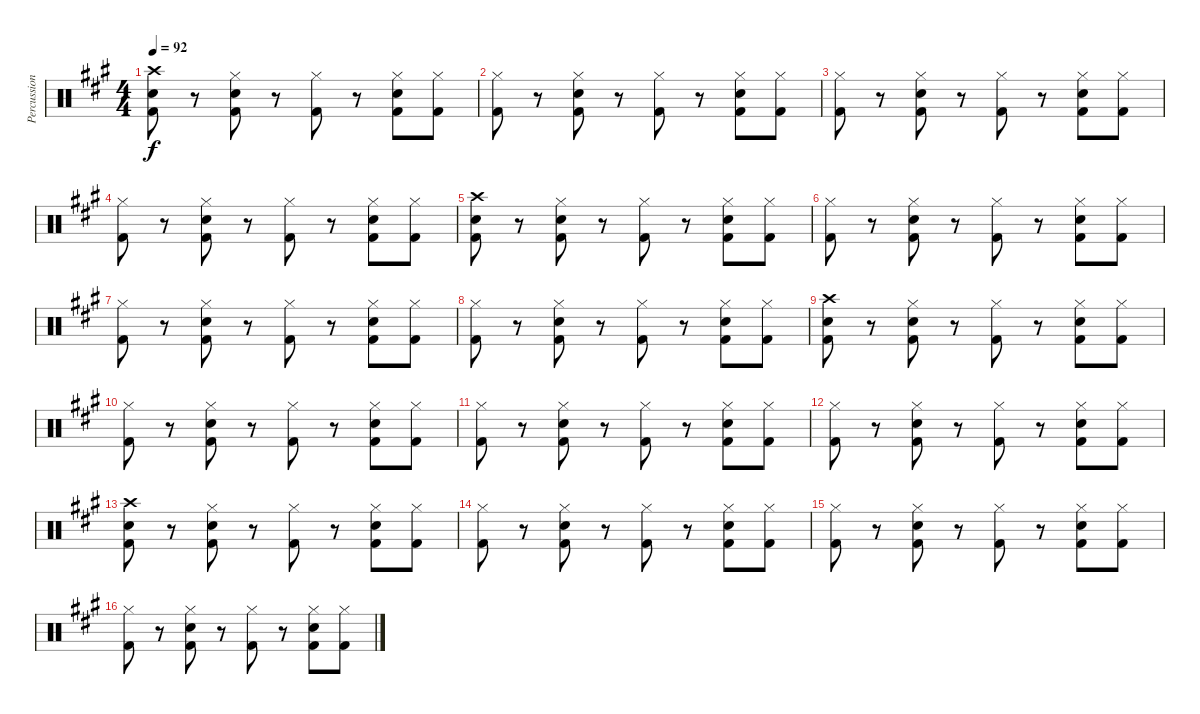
\track ("Percussion" "Percussion") {instrument percussion}
\staff {score}
\articulation defaults
\ts (4 4)
\tempo 92
\clef neutral
\ks a
("Kick (hit) 2" "Snare (hit) 2" "Crash high (hit)").8{dy f} r.8 ("Kick (hit) 2" "Snare (hit) 2" "Hi-Hat (closed)").8 r.8 ("Kick (hit) 2" "Hi-Hat (closed)").8 r.8 ("Kick (hit) 2" "Snare (hit) 2" "Hi-Hat (closed)").8 ("Kick (hit) 2" "Hi-Hat (closed)").8 |
("Kick (hit) 2" "Hi-Hat (closed)").8 r.8 ("Kick (hit) 2" "Snare (hit) 2" "Hi-Hat (closed)").8 r.8 ("Kick (hit) 2" "Hi-Hat (closed)").8 r.8 ("Kick (hit) 2" "Snare (hit) 2" "Hi-Hat (closed)").8 ("Kick (hit) 2" "Hi-Hat (closed)").8 |
("Kick (hit) 2" "Hi-Hat (closed)").8 r.8 ("Kick (hit) 2" "Snare (hit) 2" "Hi-Hat (closed)").8 r.8 ("Kick (hit) 2" "Hi-Hat (closed)").8 r.8 ("Kick (hit) 2" "Snare (hit) 2" "Hi-Hat (closed)").8 ("Kick (hit) 2" "Hi-Hat (closed)").8 |
("Kick (hit) 2" "Hi-Hat (closed)").8 r.8 ("Kick (hit) 2" "Snare (hit) 2" "Hi-Hat (closed)").8 r.8 ("Kick (hit) 2" "Hi-Hat (closed)").8 r.8 ("Kick (hit) 2" "Snare (hit) 2" "Hi-Hat (closed)").8 ("Kick (hit) 2" "Hi-Hat (closed)").8 |
("Kick (hit) 2" "Snare (hit) 2" "Crash high (hit)").8 r.8 ("Kick (hit) 2" "Snare (hit) 2" "Hi-Hat (closed)").8 r.8 ("Kick (hit) 2" "Hi-Hat (closed)").8 r.8 ("Kick (hit) 2" "Snare (hit) 2" "Hi-Hat (closed)").8 ("Kick (hit) 2" "Hi-Hat (closed)").8 |
("Kick (hit) 2" "Hi-Hat (closed)").8 r.8 ("Kick (hit) 2" "Snare (hit) 2" "Hi-Hat (closed)").8 r.8 ("Kick (hit) 2" "Hi-Hat (closed)").8 r.8 ("Kick (hit) 2" "Snare (hit) 2" "Hi-Hat (closed)").8 ("Kick (hit) 2" "Hi-Hat (closed)").8 |
("Kick (hit) 2" "Hi-Hat (closed)").8 r.8 ("Kick (hit) 2" "Snare (hit) 2" "Hi-Hat (closed)").8 r.8 ("Kick (hit) 2" "Hi-Hat (closed)").8 r.8 ("Kick (hit) 2" "Snare (hit) 2" "Hi-Hat (closed)").8 ("Kick (hit) 2" "Hi-Hat (closed)").8 |
("Kick (hit) 2" "Hi-Hat (closed)").8 r.8 ("Kick (hit) 2" "Snare (hit) 2" "Hi-Hat (closed)").8 r.8 ("Kick (hit) 2" "Hi-Hat (closed)").8 r.8 ("Kick (hit) 2" "Snare (hit) 2" "Hi-Hat (closed)").8 ("Kick (hit) 2" "Hi-Hat (closed)").8 |
("Kick (hit) 2" "Snare (hit) 2" "Crash high (hit)").8 r.8 ("Kick (hit) 2" "Snare (hit) 2" "Hi-Hat (closed)").8 r.8 ("Kick (hit) 2" "Hi-Hat (closed)").8 r.8 ("Kick (hit) 2" "Snare (hit) 2" "Hi-Hat (closed)").8 ("Kick (hit) 2" "Hi-Hat (closed)").8 |
("Kick (hit) 2" "Hi-Hat (closed)").8 r.8 ("Kick (hit) 2" "Snare (hit) 2" "Hi-Hat (closed)").8 r.8 ("Kick (hit) 2" "Hi-Hat (closed)").8 r.8 ("Kick (hit) 2" "Snare (hit) 2" "Hi-Hat (closed)").8 ("Kick (hit) 2" "Hi-Hat (closed)").8 |
("Kick (hit) 2" "Hi-Hat (closed)").8 r.8 ("Kick (hit) 2" "Snare (hit) 2" "Hi-Hat (closed)").8 r.8 ("Kick (hit) 2" "Hi-Hat (closed)").8 r.8 ("Kick (hit) 2" "Snare (hit) 2" "Hi-Hat (closed)").8 ("Kick (hit) 2" "Hi-Hat (closed)").8 |
("Kick (hit) 2" "Hi-Hat (closed)").8 r.8 ("Kick (hit) 2" "Snare (hit) 2" "Hi-Hat (closed)").8 r.8 ("Kick (hit) 2" "Hi-Hat (closed)").8 r.8 ("Kick (hit) 2" "Snare (hit) 2" "Hi-Hat (closed)").8 ("Kick (hit) 2" "Hi-Hat (closed)").8 |
("Kick (hit) 2" "Snare (hit) 2" "Crash high (hit)").8 r.8 ("Kick (hit) 2" "Snare (hit) 2" "Hi-Hat (closed)").8 r.8 ("Kick (hit) 2" "Hi-Hat (closed)").8 r.8 ("Kick (hit) 2" "Snare (hit) 2" "Hi-Hat (closed)").8 ("Kick (hit) 2" "Hi-Hat (closed)").8 |
("Kick (hit) 2" "Hi-Hat (closed)").8 r.8 ("Kick (hit) 2" "Snare (hit) 2" "Hi-Hat (closed)").8 r.8 ("Kick (hit) 2" "Hi-Hat (closed)").8 r.8 ("Kick (hit) 2" "Snare (hit) 2" "Hi-Hat (closed)").8 ("Kick (hit) 2" "Hi-Hat (closed)").8 |
("Kick (hit) 2" "Hi-Hat (closed)").8 r.8 ("Kick (hit) 2" "Snare (hit) 2" "Hi-Hat (closed)").8 r.8 ("Kick (hit) 2" "Hi-Hat (closed)").8 r.8 ("Kick (hit) 2" "Snare (hit) 2" "Hi-Hat (closed)").8 ("Kick (hit) 2" "Hi-Hat (closed)").8 |
("Kick (hit) 2" "Hi-Hat (closed)").8 r.8 ("Kick (hit) 2" "Snare (hit) 2" "Hi-Hat (closed)").8 r.8 ("Kick (hit) 2" "Hi-Hat (closed)").8 r.8 ("Kick (hit) 2" "Snare (hit) 2" "Hi-Hat (closed)").8 ("Kick (hit) 2" "Hi-Hat (closed)").8
